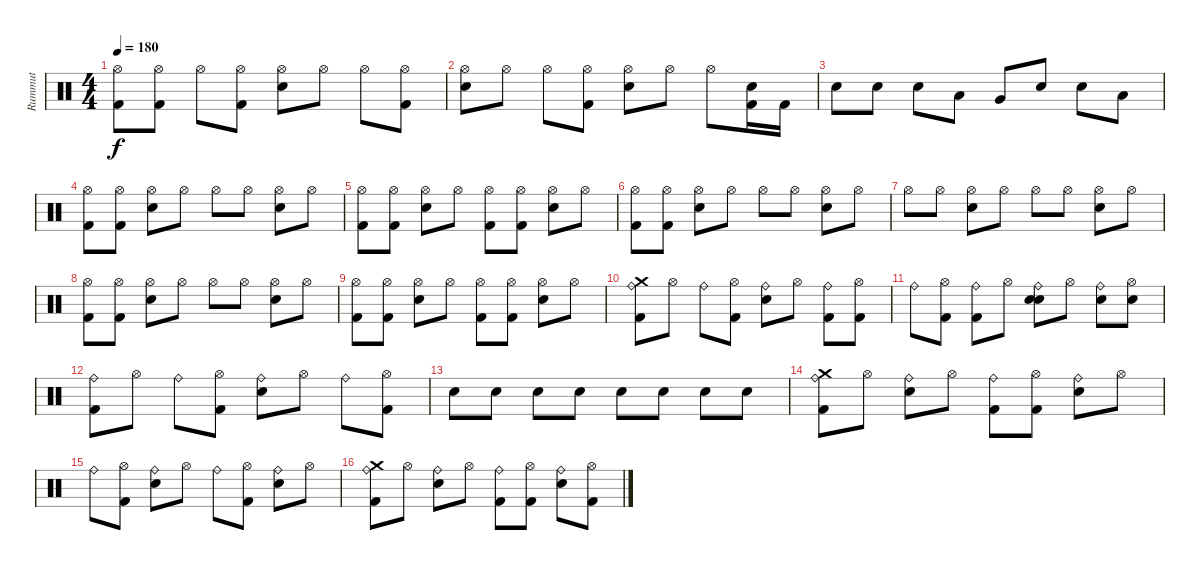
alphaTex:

\track ("Rummut" "Rummut") {instrument percussion}
\staff {score}
\articulation defaults
\ts (4 4)
\tempo 180
\clef neutral
\ks c
("Hi-Hat (open)" "Kick (hit) 2").8{dy f} ("Hi-Hat (open)"{x} "Kick (hit) 2").8 "Hi-Hat (open)".8 ("Hi-Hat (open)"{x} "Kick (hit) 2").8 ("Hi-Hat (open)" "Snare (hit) 2").8 "Hi-Hat (open)"{x}.8 "Hi-Hat (open)".8 ("Hi-Hat (open)"{x} "Kick (hit) 2").8 |
("Hi-Hat (open)" "Snare (hit) 2").8 "Hi-Hat (open)"{x}.8 "Hi-Hat (open)".8 ("Hi-Hat (open)"{x} "Kick (hit) 2").8 ("Hi-Hat (open)" "Snare (hit) 2").8 "Hi-Hat (open)"{x}.8 "Hi-Hat (open)".8 ("Snare (hit)"{x} "Kick (hit) 2").16 "Kick (hit) 2".16 |
"Snare (hit) 2".8 "Snare (hit) 2".8 "Snare (hit) 2".8 "Low Tom (hit)".8 "Very Low Tom (hit)".8 "Snare (hit) 2".8 "Snare (hit) 2".8 "Low Tom (hit)".8 |
("Hi-Hat (open)" "Kick (hit) 2").8 ("Hi-Hat (open)"{x} "Kick (hit) 2").8 ("Hi-Hat (open)" "Snare (hit) 2").8 "Hi-Hat (open)"{x}.8 "Hi-Hat (open)".8 "Hi-Hat (open)"{x}.8 ("Hi-Hat (open)" "Snare (hit) 2").8 "Hi-Hat (open)"{x}.8 |
("Hi-Hat (open)" "Kick (hit) 2").8 ("Hi-Hat (open)"{x} "Kick (hit) 2").8 ("Hi-Hat (open)" "Snare (hit) 2").8 "Hi-Hat (open)"{x}.8 ("Hi-Hat (open)" "Kick (hit) 2").8 ("Hi-Hat (open)"{x} "Kick (hit) 2").8 ("Hi-Hat (open)" "Snare (hit) 2").8 "Hi-Hat (open)"{x}.8 |
("Hi-Hat (open)" "Kick (hit) 2").8 ("Hi-Hat (open)"{x} "Kick (hit) 2").8 ("Hi-Hat (open)" "Snare (hit) 2").8 "Hi-Hat (open)"{x}.8 "Hi-Hat (open)".8 "Hi-Hat (open)"{x}.8 ("Hi-Hat (open)" "Snare (hit) 2").8 "Hi-Hat (open)"{x}.8 |
"Hi-Hat (open)".8 "Hi-Hat (open)"{x}.8 ("Hi-Hat (open)" "Snare (hit) 2").8 "Hi-Hat (open)"{x}.8 "Hi-Hat (open)".8 "Hi-Hat (open)"{x}.8 ("Hi-Hat (open)" "Snare (hit) 2").8 "Hi-Hat (open)"{x}.8 |
("Hi-Hat (open)" "Kick (hit) 2").8 ("Hi-Hat (open)"{x} "Kick (hit) 2").8 ("Hi-Hat (open)" "Snare (hit) 2").8 "Hi-Hat (open)"{x}.8 "Hi-Hat (open)".8 "Hi-Hat (open)"{x}.8 ("Hi-Hat (open)" "Snare (hit) 2").8 "Hi-Hat (open)"{x}.8 |
("Hi-Hat (open)" "Kick (hit) 2").8 ("Hi-Hat (open)"{x} "Kick (hit) 2").8 ("Hi-Hat (open)" "Snare (hit) 2").8 "Hi-Hat (open)"{x}.8 ("Hi-Hat (open)" "Kick (hit) 2").8 ("Hi-Hat (open)"{x} "Kick (hit) 2").8 ("Hi-Hat (open)" "Snare (hit) 2").8 "Hi-Hat (open)"{x}.8 |
("Ride (bell)" "Kick (hit) 2" "Crash medium (hit)").8 "Hi-Hat (open)"{x}.8 "Ride (bell)".8 ("Hi-Hat (open)"{x} "Kick (hit) 2").8 ("Ride (bell)" "Snare (hit) 2").8 "Hi-Hat (open)"{x}.8 ("Ride (bell)" "Kick (hit) 2").8 ("Hi-Hat (open)"{x} "Kick (hit) 2").8 |
"Ride (bell)".8 ("Hi-Hat (open)"{x} "Kick (hit) 2").8 ("Ride (bell)" "Kick (hit) 2").8 "Hi-Hat (open)"{x}.8 ("Ride (bell)" "Snare (hit) 2" "Snare (hit) 2").8 "Hi-Hat (open)"{x}.8 ("Ride (bell)" "Snare (hit) 2").8 ("Hi-Hat (open)"{x} "Snare (hit) 2").8 |
("Ride (bell)" "Kick (hit) 2").8 "Hi-Hat (open)"{x}.8 "Ride (bell)".8 ("Hi-Hat (open)"{x} "Kick (hit) 2").8 ("Ride (bell)" "Snare (hit) 2").8 "Hi-Hat (open)"{x}.8 "Ride (bell)".8 ("Hi-Hat (open)"{x} "Kick (hit) 2").8 |
"Snare (hit) 2".8 "Snare (hit) 2".8 "Snare (hit)"{x}.8 "Snare (hit)"{x}.8 "Snare (hit) 2".8 "Snare (hit) 2".8 "Snare (hit)"{x}.8 "Snare (hit)"{x}.8 |
("Ride (bell)" "Crash medium (hit)" "Kick (hit) 2").8{volume 15} "Hi-Hat (open)"{x}.8 ("Ride (bell)" "Snare (hit) 2").8 "Hi-Hat (open)"{x}.8 ("Ride (bell)" "Kick (hit) 2").8 ("Hi-Hat (open)"{x} "Kick (hit) 2").8 ("Ride (bell)" "Snare (hit) 2").8 "Hi-Hat (open)"{x}.8 |
"Ride (bell)".8 ("Hi-Hat (open)"{x} "Kick (hit) 2").8 ("Ride (bell)" "Snare (hit) 2").8 "Hi-Hat (open)"{x}.8 "Ride (bell)".8 ("Hi-Hat (open)"{x} "Kick (hit) 2").8 ("Ride (bell)" "Snare (hit) 2").8 "Hi-Hat (open)"{x}.8 |
("Ride (bell)" "Crash medium (hit)" "Kick (hit) 2").8 "Hi-Hat (open)"{x}.8 ("Ride (bell)" "Snare (hit) 2").8 "Hi-Hat (open)"{x}.8 ("Ride (bell)" "Kick (hit) 2").8 ("Hi-Hat (open)"{x} "Kick (hit) 2").8 ("Ride (bell)" "Snare (hit) 2").8 ("Hi-Hat (open)"{x} "Kick (hit) 2").8
